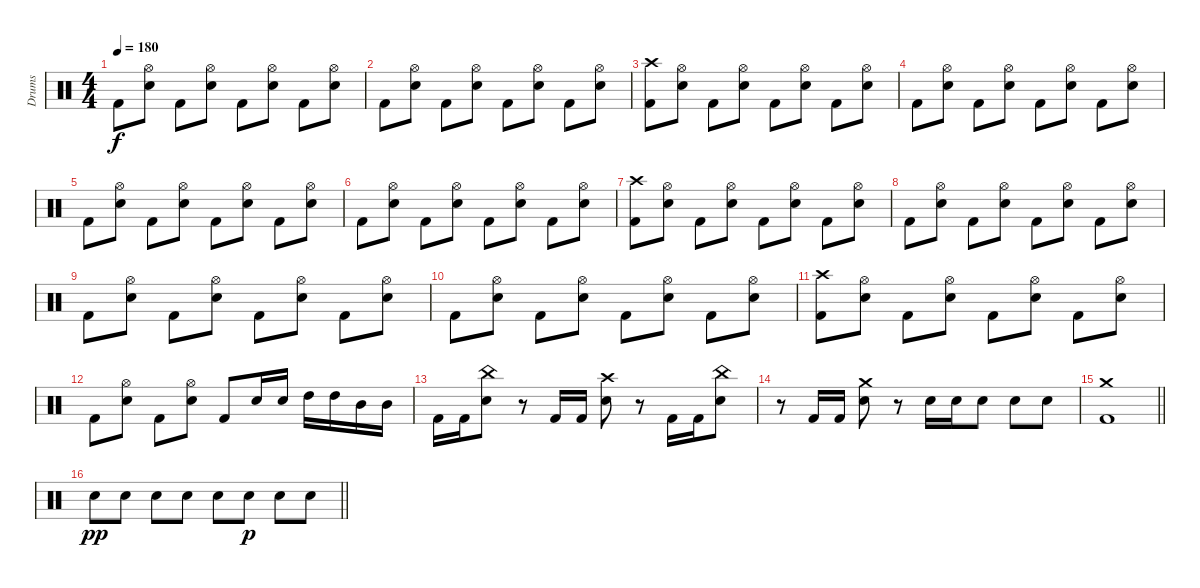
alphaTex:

\track ("Drums" "Drums") {instrument percussion}
\staff {score}
\articulation defaults
\ts (4 4)
\tempo 180
\clef neutral
\ks c "Kick (hit) 2".8{dy f}
("Hi-Hat (open)" "Electric Snare (hit)").8 "Kick (hit) 2".8 ("Hi-Hat (open)" "Electric Snare (hit)").8 "Kick (hit) 2".8 ("Hi-Hat (open)" "Electric Snare (hit)").8 "Kick (hit) 2".8 ("Hi-Hat (open)" "Electric Snare (hit)").8 |
"Kick (hit) 2".8 ("Hi-Hat (open)" "Electric Snare (hit)").8 "Kick (hit) 2".8 ("Hi-Hat (open)" "Electric Snare (hit)").8 "Kick (hit) 2".8 ("Hi-Hat (open)" "Electric Snare (hit)").8 "Kick (hit) 2".8 ("Hi-Hat (open)" "Electric Snare (hit)").8 |
("Crash high (hit)" "Kick (hit) 2").8{volume 16} ("Hi-Hat (open)" "Electric Snare (hit)").8 "Kick (hit) 2".8 ("Hi-Hat (open)" "Electric Snare (hit)").8 "Kick (hit) 2".8 ("Hi-Hat (open)" "Electric Snare (hit)").8 "Kick (hit) 2".8 ("Hi-Hat (open)" "Electric Snare (hit)").8 |
"Kick (hit) 2".8 ("Hi-Hat (open)" "Electric Snare (hit)").8 "Kick (hit) 2".8 ("Hi-Hat (open)" "Electric Snare (hit)").8 "Kick (hit) 2".8 ("Hi-Hat (open)" "Electric Snare (hit)").8 "Kick (hit) 2".8 ("Hi-Hat (open)" "Electric Snare (hit)").8 |
"Kick (hit) 2".8 ("Hi-Hat (open)" "Electric Snare (hit)").8 "Kick (hit) 2".8 ("Hi-Hat (open)" "Electric Snare (hit)").8 "Kick (hit) 2".8 ("Hi-Hat (open)" "Electric Snare (hit)").8 "Kick (hit) 2".8 ("Hi-Hat (open)" "Electric Snare (hit)").8 |
"Kick (hit) 2".8 ("Hi-Hat (open)" "Electric Snare (hit)").8 "Kick (hit) 2".8 ("Hi-Hat (open)" "Electric Snare (hit)").8 "Kick (hit) 2".8 ("Hi-Hat (open)" "Electric Snare (hit)").8 "Kick (hit) 2".8 ("Hi-Hat (open)" "Electric Snare (hit)").8 |
("Crash high (hit)" "Kick (hit) 2").8{volume 16} ("Hi-Hat (open)" "Electric Snare (hit)").8 "Kick (hit) 2".8 ("Hi-Hat (open)" "Electric Snare (hit)").8 "Kick (hit) 2".8 ("Hi-Hat (open)" "Electric Snare (hit)").8 "Kick (hit) 2".8 ("Hi-Hat (open)" "Electric Snare (hit)").8 |
"Kick (hit) 2".8 ("Hi-Hat (open)" "Electric Snare (hit)").8 "Kick (hit) 2".8 ("Hi-Hat (open)" "Electric Snare (hit)").8 "Kick (hit) 2".8 ("Hi-Hat (open)" "Electric Snare (hit)").8 "Kick (hit) 2".8 ("Hi-Hat (open)" "Electric Snare (hit)").8 |
"Kick (hit) 2".8 ("Hi-Hat (open)" "Electric Snare (hit)").8 "Kick (hit) 2".8 ("Hi-Hat (open)" "Electric Snare (hit)").8 "Kick (hit) 2".8 ("Hi-Hat (open)" "Electric Snare (hit)").8 "Kick (hit) 2".8 ("Hi-Hat (open)" "Electric Snare (hit)").8 |
"Kick (hit) 2".8 ("Hi-Hat (open)" "Electric Snare (hit)").8 "Kick (hit) 2".8 ("Hi-Hat (open)" "Electric Snare (hit)").8 "Kick (hit) 2".8 ("Hi-Hat (open)" "Electric Snare (hit)").8 "Kick (hit) 2".8 ("Hi-Hat (open)" "Electric Snare (hit)").8 |
("Crash high (hit)" "Kick (hit) 2").8{volume 16} ("Hi-Hat (open)" "Electric Snare (hit)").8 "Kick (hit) 2".8 ("Hi-Hat (open)" "Electric Snare (hit)").8 "Kick (hit) 2".8 ("Hi-Hat (open)" "Electric Snare (hit)").8 "Kick (hit) 2".8 ("Hi-Hat (open)" "Electric Snare (hit)").8 |
"Kick (hit) 2".8 ("Hi-Hat (open)" "Electric Snare (hit)").8 "Kick (hit) 2".8 ("Hi-Hat (open)" "Electric Snare (hit)").8 "Kick (hit) 2".8 "Electric Snare (hit)".16 "Electric Snare (hit)".16 "High Tom (hit)".16 "High Tom (hit)".16 "Mid Tom (hit)".16 "Mid Tom (hit)".16 |
"Kick (hit) 2".16 "Kick (hit) 2".16 ("China (hit)" "Electric Snare (hit)").8 r.8 "Kick (hit) 2".16 "Kick (hit) 2".16 ("Crash high (hit)" "Electric Snare (hit)").8 r.8 "Kick (hit) 2".16 "Kick (hit) 2".16 ("China (hit)" "Electric Snare (hit)").8 |
r.8 "Kick (hit) 2".16 "Kick (hit) 2".16 ("Crash medium (hit)" "Electric Snare (hit)").8 r.8 "Electric Snare (hit)".16 "Electric Snare (hit)".16 "Electric Snare (hit)".8 "Electric Snare (hit)".8 "Electric Snare (hit)".8 |
\barLineRight lightlight
("Crash medium (hit)" "Kick (hit) 2").1 |
\barLineRight lightlight "Electric Snare (hit)".8{dy pp} "Electric Snare (hit)".8 "Electric Snare (hit)".8 "Electric Snare (hit)".8 "Electric Snare (hit)".8 "Electric Snare (hit)".8{dy p} "Electric Snare (hit)".8 "Electric Snare (hit)".8
